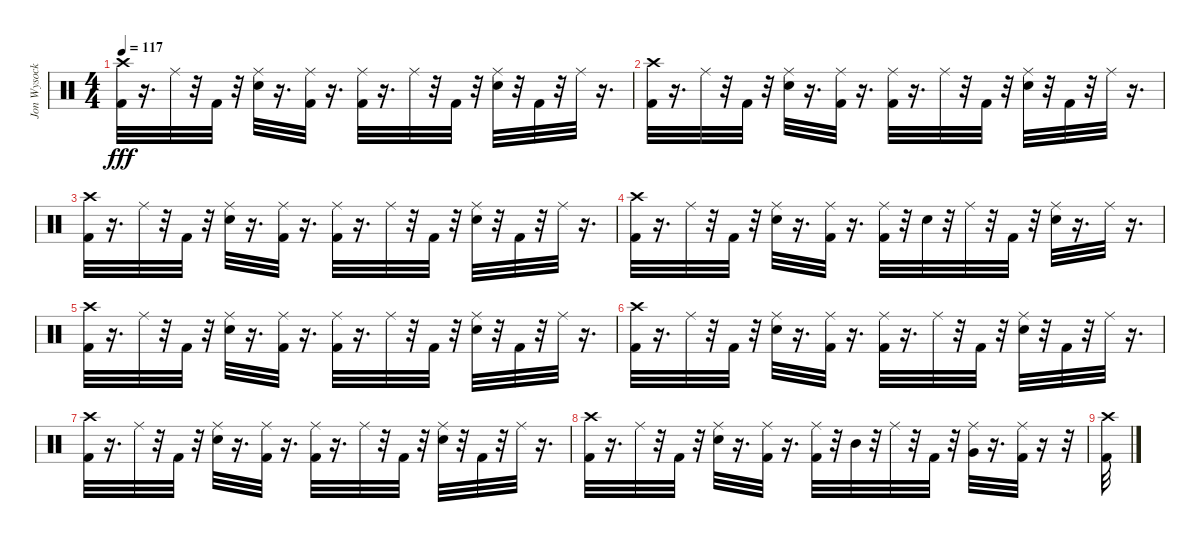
\track ("Jon Wysocki - Drums" "Jon Wysock") {instrument percussion}
\staff {score}
\articulation defaults
\ts (4 4)
\tempo 117
\clef neutral
\ks c
("Kick (hit) 2" "Crash high (hit)").32{dy fff} r.16{d} "Ride (middle)".32 r.32 "Kick (hit) 2".32 r.32 ("Ride (middle)" "Electric Snare (hit)").32 r.16{d} ("Ride (middle)" "Kick (hit) 2").32 r.16{d} ("Ride (middle)" "Kick (hit) 2").32 r.16{d} "Ride (middle)".32 r.32 "Kick (hit) 2".32 r.32 ("Ride (middle)" "Electric Snare (hit)").32 r.32 "Kick (hit) 2".32 r.32 "Ride (middle)".32 r.16{d} |
("Crash high (hit)" "Kick (hit) 2").32 r.16{d} "Ride (middle)".32 r.32 "Kick (hit) 2".32 r.32 ("Electric Snare (hit)" "Ride (middle)").32 r.16{d} ("Kick (hit) 2" "Ride (middle)").32 r.16{d} ("Kick (hit) 2" "Ride (middle)").32 r.16{d} "Ride (middle)".32 r.32 "Kick (hit) 2".32 r.32 ("Electric Snare (hit)" "Ride (middle)").32 r.32 "Kick (hit) 2".32 r.32 "Ride (middle)".32 r.16{d} |
("Crash high (hit)" "Kick (hit) 2").32 r.16{d} "Ride (middle)".32 r.32 "Kick (hit) 2".32 r.32 ("Electric Snare (hit)" "Ride (middle)").32 r.16{d} ("Kick (hit) 2" "Ride (middle)").32 r.16{d} ("Kick (hit) 2" "Ride (middle)").32 r.16{d} "Ride (middle)".32 r.32 "Kick (hit) 2".32 r.32 ("Electric Snare (hit)" "Ride (middle)").32 r.32 "Kick (hit) 2".32 r.32 "Ride (middle)".32 r.16{d} |
("Crash high (hit)" "Kick (hit) 2").32 r.16{d} "Ride (middle)".32 r.32 "Kick (hit) 2".32 r.32 ("Ride (middle)" "Electric Snare (hit)").32 r.16{d} ("Ride (middle)" "Kick (hit) 2").32 r.16{d} ("Ride (middle)" "Kick (hit) 2").32 r.32 "Electric Snare (hit)".32 r.32 "Ride (middle)".32 r.32 "Kick (hit) 2".32 r.32 ("Ride (middle)" "Electric Snare (hit)").32 r.16{d} "Ride (middle)".32 r.16{d} |
("Kick (hit) 2" "Crash high (hit)").32 r.16{d} "Ride (middle)".32 r.32 "Kick (hit) 2".32 r.32 ("Ride (middle)" "Electric Snare (hit)").32 r.16{d} ("Ride (middle)" "Kick (hit) 2").32 r.16{d} ("Ride (middle)" "Kick (hit) 2").32 r.16{d} "Ride (middle)".32 r.32 "Kick (hit) 2".32 r.32 ("Ride (middle)" "Electric Snare (hit)").32 r.32 "Kick (hit) 2".32 r.32 "Ride (middle)".32 r.16{d} |
("Crash high (hit)" "Kick (hit) 2").32 r.16{d} "Ride (middle)".32 r.32 "Kick (hit) 2".32 r.32 ("Electric Snare (hit)" "Ride (middle)").32 r.16{d} ("Kick (hit) 2" "Ride (middle)").32 r.16{d} ("Kick (hit) 2" "Ride (middle)").32 r.16{d} "Ride (middle)".32 r.32 "Kick (hit) 2".32 r.32 ("Electric Snare (hit)" "Ride (middle)").32 r.32 "Kick (hit) 2".32 r.32 "Ride (middle)".32 r.16{d} |
("Crash high (hit)" "Kick (hit) 2").32 r.16{d} "Ride (middle)".32 r.32 "Kick (hit) 2".32 r.32 ("Electric Snare (hit)" "Ride (middle)").32 r.16{d} ("Kick (hit) 2" "Ride (middle)").32 r.16{d} ("Kick (hit) 2" "Ride (middle)").32 r.16{d} "Ride (middle)".32 r.32 "Kick (hit) 2".32 r.32 ("Electric Snare (hit)" "Ride (middle)").32 r.32 "Kick (hit) 2".32 r.32 "Ride (middle)".32 r.16{d} |
("Crash high (hit)" "Kick (hit) 2").32 r.16{d} "Ride (middle)".32 r.32 "Kick (hit) 2".32 r.32 ("Ride (middle)" "Electric Snare (hit)").32 r.16{d} ("Ride (middle)" "Kick (hit) 2").32 r.16{d} ("Ride (middle)" "Kick (hit) 2").32 r.32 "Mid Tom (hit)".32 r.32 "Ride (middle)".32 r.32 "Kick (hit) 2".32 r.32 ("Very Low Tom (hit)" "Ride (middle)").32 r.16{d} ("Kick (hit) 2" "Ride (middle)").32 r.16 r.32 |
("Kick (hit) 2" "Crash high (hit)").32
